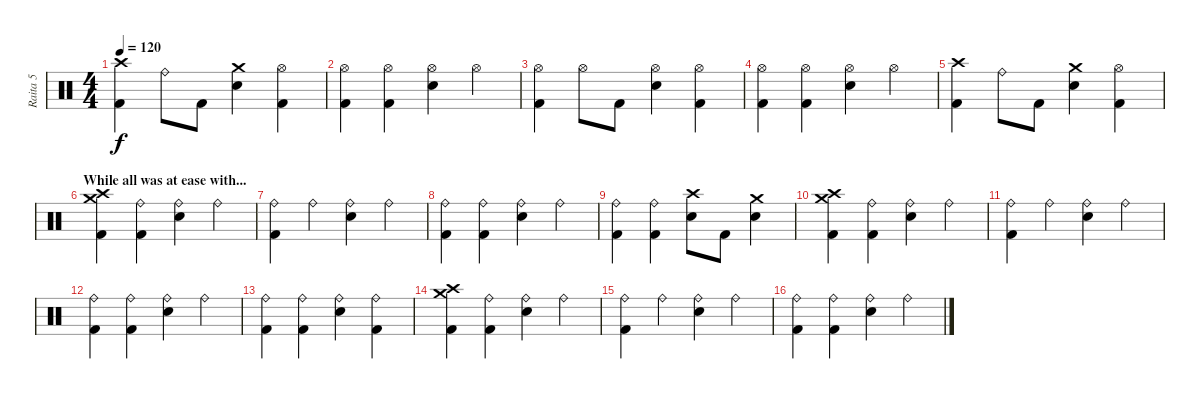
\track ("Raita 5" "Raita 5") {instrument percussion}
\staff {score}
\articulation defaults
\ts (4 4)
\tempo 120
\clef neutral
\ks c
("Crash high (hit)" "Kick (hit) 2").4{dy f} "Ride (bell)".8 "Kick (hit) 2".8 ("Crash medium (hit)" "Snare (hit) 2").4 ("Hi-Hat (open)" "Kick (hit) 2").4 |
("Hi-Hat (open)" "Kick (hit) 2").4 ("Hi-Hat (open)" "Kick (hit) 2").4 ("Hi-Hat (open)" "Snare (hit) 2").4 "Hi-Hat (open)".4 |
("Hi-Hat (open)" "Kick (hit) 2").4 "Hi-Hat (open)".8 "Kick (hit) 2".8 ("Hi-Hat (open)" "Snare (hit) 2").4 ("Hi-Hat (open)" "Kick (hit) 2").4 |
("Hi-Hat (open)" "Kick (hit) 2").4 ("Hi-Hat (open)" "Kick (hit) 2").4 ("Hi-Hat (open)" "Snare (hit) 2").4 "Hi-Hat (open)".4 |
("Crash high (hit)" "Kick (hit) 2").4 "Ride (bell)".8 "Kick (hit) 2".8 ("Crash medium (hit)" "Snare (hit) 2").4 ("Hi-Hat (open)" "Kick (hit) 2").4 |
\section ("" "While all was at ease with... ")
("Crash medium (hit)" "Crash high (hit)" "Kick (hit) 2").4 ("Ride (bell)" "Kick (hit) 2").4 ("Ride (bell)" "Snare (hit) 2").4 "Ride (bell)".4 |
("Ride (bell)" "Kick (hit) 2").4 "Ride (bell)".4 ("Ride (bell)" "Snare (hit) 2").4 "Ride (bell)".4 |
("Ride (bell)" "Kick (hit) 2").4 ("Ride (bell)" "Kick (hit) 2").4 ("Ride (bell)" "Snare (hit) 2").4 "Ride (bell)".4 |
("Ride (bell)" "Kick (hit) 2").4 ("Ride (bell)" "Kick (hit) 2").4 ("Crash high (hit)" "Snare (hit) 2").8 "Kick (hit) 2".8 ("Crash medium (hit)" "Snare (hit) 2").4 |
("Crash medium (hit)" "Crash high (hit)" "Kick (hit) 2").4 ("Ride (bell)" "Kick (hit) 2").4 ("Ride (bell)" "Snare (hit) 2").4 "Ride (bell)".4 |
("Ride (bell)" "Kick (hit) 2").4 "Ride (bell)".4 ("Ride (bell)" "Snare (hit) 2").4 "Ride (bell)".4 |
("Ride (bell)" "Kick (hit) 2").4 ("Ride (bell)" "Kick (hit) 2").4 ("Ride (bell)" "Snare (hit) 2").4 "Ride (bell)".4 |
("Ride (bell)" "Kick (hit) 2").4 ("Ride (bell)" "Kick (hit) 2").4 ("Ride (bell)" "Snare (hit) 2").4 ("Ride (bell)" "Kick (hit) 2").4 |
("Crash medium (hit)" "Crash high (hit)" "Kick (hit) 2").4 ("Ride (bell)" "Kick (hit) 2").4 ("Ride (bell)" "Snare (hit) 2").4 "Ride (bell)".4 |
("Ride (bell)" "Kick (hit) 2").4 "Ride (bell)".4 ("Ride (bell)" "Snare (hit) 2").4 "Ride (bell)".4 |
("Ride (bell)" "Kick (hit) 2").4 ("Ride (bell)" "Kick (hit) 2").4 ("Ride (bell)" "Snare (hit) 2").4 "Ride (bell)".4
